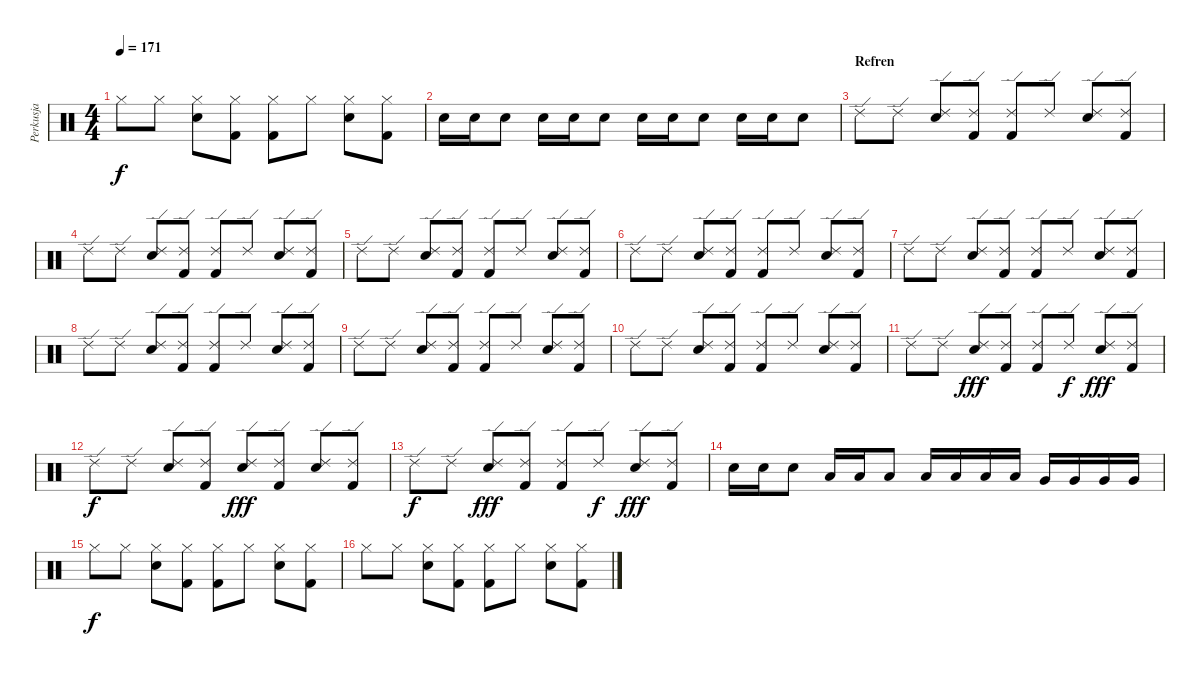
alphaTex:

\track ("Perkusja" "Perkusja") {instrument percussion}
\staff {score}
\articulation defaults
\ts (4 4)
\tempo 171
\clef neutral
\ks c "Hi-Hat (closed)".8{dy f} "Hi-Hat (closed)".8
("Hi-Hat (closed)" "Snare (hit) 2").8 ("Hi-Hat (closed)" "Kick (hit) 2").8 ("Hi-Hat (closed)" "Kick (hit) 2").8 "Hi-Hat (closed)".8 ("Hi-Hat (closed)" "Snare (hit) 2").8 ("Hi-Hat (closed)" "Kick (hit) 2").8 |
"Snare (hit) 2".16 "Snare (hit) 2".16 "Snare (hit) 2".8 "Snare (hit) 2".16 "Snare (hit) 2".16 "Snare (hit) 2".8 "Snare (hit) 2".16 "Snare (hit) 2".16 "Snare (hit) 2".8 "Snare (hit) 2".16 "Snare (hit) 2".16 "Snare (hit) 2".8 |
\section ("" "Refren")
"Ride (edge) 2".8 "Ride (edge) 2".8 ("Ride (edge) 2" "Snare (hit) 2").8 ("Ride (edge) 2" "Kick (hit) 2").8 ("Ride (edge) 2" "Kick (hit) 2").8 "Ride (edge) 2".8 ("Ride (edge) 2" "Snare (hit) 2").8 ("Ride (edge) 2" "Kick (hit) 2").8 |
"Ride (edge) 2".8 "Ride (edge) 2".8 ("Ride (edge) 2" "Snare (hit) 2").8 ("Ride (edge) 2" "Kick (hit) 2").8 ("Ride (edge) 2" "Kick (hit) 2").8 "Ride (edge) 2".8 ("Ride (edge) 2" "Snare (hit) 2").8 ("Ride (edge) 2" "Kick (hit) 2").8 |
"Ride (edge) 2".8 "Ride (edge) 2".8 ("Ride (edge) 2" "Snare (hit) 2").8 ("Ride (edge) 2" "Kick (hit) 2").8 ("Ride (edge) 2" "Kick (hit) 2").8 "Ride (edge) 2".8 ("Ride (edge) 2" "Snare (hit) 2").8 ("Ride (edge) 2" "Kick (hit) 2").8 |
"Ride (edge) 2".8 "Ride (edge) 2".8 ("Ride (edge) 2" "Snare (hit) 2").8 ("Ride (edge) 2" "Kick (hit) 2").8 ("Ride (edge) 2" "Kick (hit) 2").8 "Ride (edge) 2".8 ("Ride (edge) 2" "Snare (hit) 2").8 ("Ride (edge) 2" "Kick (hit) 2").8 |
"Ride (edge) 2".8 "Ride (edge) 2".8 ("Ride (edge) 2" "Snare (hit) 2").8 ("Ride (edge) 2" "Kick (hit) 2").8 ("Ride (edge) 2" "Kick (hit) 2").8 "Ride (edge) 2".8 ("Ride (edge) 2" "Snare (hit) 2").8 ("Ride (edge) 2" "Kick (hit) 2").8 |
"Ride (edge) 2".8 "Ride (edge) 2".8 ("Ride (edge) 2" "Snare (hit) 2").8 ("Ride (edge) 2" "Kick (hit) 2").8 ("Ride (edge) 2" "Kick (hit) 2").8 "Ride (edge) 2".8 ("Ride (edge) 2" "Snare (hit) 2").8 ("Ride (edge) 2" "Kick (hit) 2").8 |
"Ride (edge) 2".8 "Ride (edge) 2".8 ("Ride (edge) 2" "Snare (hit) 2").8 ("Ride (edge) 2" "Kick (hit) 2").8 ("Ride (edge) 2" "Kick (hit) 2").8 "Ride (edge) 2".8 ("Ride (edge) 2" "Snare (hit) 2").8 ("Ride (edge) 2" "Kick (hit) 2").8 |
"Ride (edge) 2".8 "Ride (edge) 2".8 ("Ride (edge) 2" "Snare (hit) 2").8 ("Ride (edge) 2" "Kick (hit) 2").8 ("Ride (edge) 2" "Kick (hit) 2").8 "Ride (edge) 2".8 ("Ride (edge) 2" "Snare (hit) 2").8 ("Ride (edge) 2" "Kick (hit) 2").8 |
"Ride (edge) 2".8 "Ride (edge) 2".8 ("Ride (edge) 2" "Snare (hit) 2").8{dy fff} ("Ride (edge) 2" "Kick (hit) 2").8 ("Ride (edge) 2" "Kick (hit) 2").8 "Ride (edge) 2".8{dy f} ("Ride (edge) 2" "Snare (hit) 2").8{dy fff} ("Ride (edge) 2" "Kick (hit) 2").8 |
"Ride (edge) 2".8{dy f} "Ride (edge) 2".8 ("Ride (edge) 2" "Snare (hit) 2").8 ("Ride (edge) 2" "Kick (hit) 2").8 ("Ride (edge) 2" "Snare (hit) 2").8{dy fff} ("Ride (edge) 2" "Kick (hit) 2").8 ("Ride (edge) 2" "Snare (hit) 2").8 ("Ride (edge) 2" "Kick (hit) 2").8 |
"Ride (edge) 2".8{dy f} "Ride (edge) 2".8 ("Ride (edge) 2" "Snare (hit) 2").8{dy fff} ("Ride (edge) 2" "Kick (hit) 2").8 ("Ride (edge) 2" "Kick (hit) 2").8 "Ride (edge) 2".8{dy f} ("Ride (edge) 2" "Snare (hit) 2").8{dy fff} ("Ride (edge) 2" "Kick (hit) 2").8 |
"Snare (hit) 2".16 "Snare (hit) 2".16 "Snare (hit) 2".8 "Low Tom (hit)".16 "Low Tom (hit)".16 "Low Tom (hit)".8 "Low Tom (hit)".16 "Low Tom (hit)".16 "Low Tom (hit)".16 "Low Tom (hit)".16 "Very Low Tom (hit)".16 "Very Low Tom (hit)".16 "Very Low Tom (hit)".16 "Very Low Tom (hit)".16 |
"Hi-Hat (closed)".8{dy f} "Hi-Hat (closed)".8 ("Hi-Hat (closed)" "Snare (hit) 2").8 ("Hi-Hat (closed)" "Kick (hit) 2").8 ("Hi-Hat (closed)" "Kick (hit) 2").8 "Hi-Hat (closed)".8 ("Hi-Hat (closed)" "Snare (hit) 2").8 ("Hi-Hat (closed)" "Kick (hit) 2").8 |
"Hi-Hat (closed)".8 "Hi-Hat (closed)".8 ("Hi-Hat (closed)" "Snare (hit) 2").8 ("Hi-Hat (closed)" "Kick (hit) 2").8 ("Hi-Hat (closed)" "Kick (hit) 2").8 "Hi-Hat (closed)".8 ("Hi-Hat (closed)" "Snare (hit) 2").8 ("Hi-Hat (closed)" "Kick (hit) 2").8
